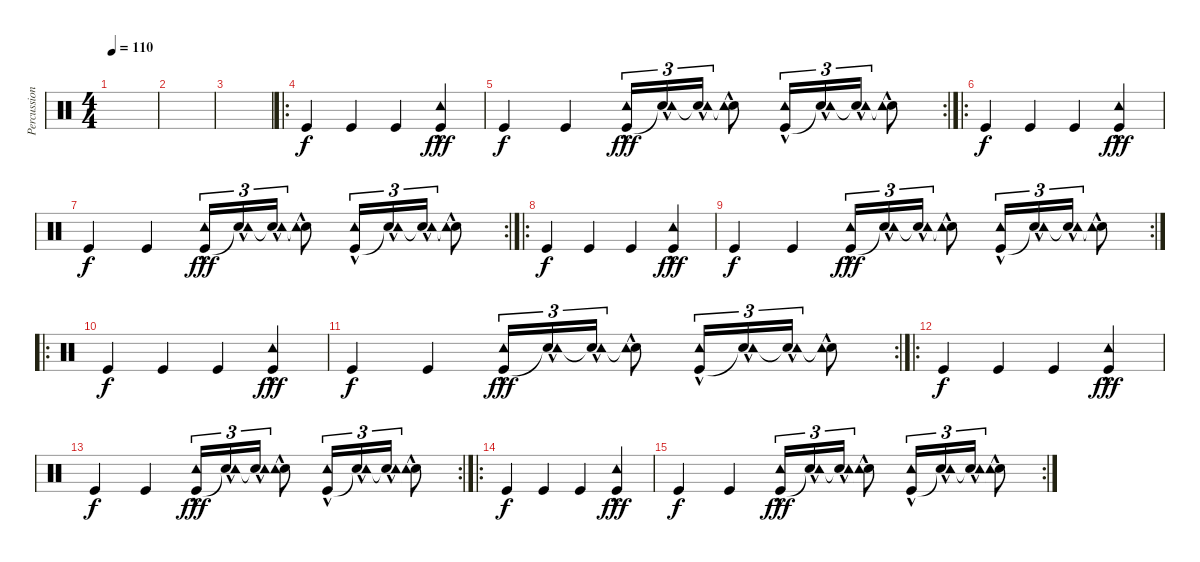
\track ("Percussion" "Percussion") {instrument percussion}
\staff {score}
\articulation defaults
\ts (4 4)
\tempo 110
\clef neutral
\ks c
|
|
|
\ro "Kick (hit)".4 "Kick (hit)".4 "Kick (hit)".4
("Kick (hit)" "Tambourine (hit)"{hac}).4{dy fff} |
\rc 2 "Kick (hit)".4{dy f} "Kick (hit)".4
("Kick (hit)" "Tambourine (hit)"{hac}).16{tu (3 2) dy fff} ("Snare (hit)"{t} "Tambourine (hit)"{hac}).16{tu (3 2)} ("Snare (hit)"{t} "Tambourine (hit)"{hac}).16{tu (3 2)} ("Snare (hit)"{t} "Tambourine (hit)"{hac}).8 ("Kick (hit)" "Tambourine (hit)"{hac}).16{tu (3 2)} ("Snare (hit)"{t} "Tambourine (hit)"{hac}).16{tu (3 2)} ("Snare (hit)"{t} "Tambourine (hit)"{hac}).16{tu (3 2)} ("Snare (hit)"{t} "Tambourine (hit)"{hac}).8 |
\ro "Kick (hit)".4{dy f} "Kick (hit)".4 "Kick (hit)".4
("Kick (hit)" "Tambourine (hit)"{hac}).4{dy fff} |
\rc 2 "Kick (hit)".4{dy f} "Kick (hit)".4
("Kick (hit)" "Tambourine (hit)"{hac}).16{tu (3 2) dy fff} ("Snare (hit)"{t} "Tambourine (hit)"{hac}).16{tu (3 2)} ("Snare (hit)"{t} "Tambourine (hit)"{hac}).16{tu (3 2)} ("Snare (hit)"{t} "Tambourine (hit)"{hac}).8 ("Kick (hit)" "Tambourine (hit)"{hac}).16{tu (3 2)} ("Snare (hit)"{t} "Tambourine (hit)"{hac}).16{tu (3 2)} ("Snare (hit)"{t} "Tambourine (hit)"{hac}).16{tu (3 2)} ("Snare (hit)"{t} "Tambourine (hit)"{hac}).8 |
\ro "Kick (hit)".4{dy f} "Kick (hit)".4 "Kick (hit)".4
("Kick (hit)" "Tambourine (hit)"{hac}).4{dy fff} |
\rc 2 "Kick (hit)".4{dy f} "Kick (hit)".4
("Kick (hit)" "Tambourine (hit)"{hac}).16{tu (3 2) dy fff} ("Snare (hit)"{t} "Tambourine (hit)"{hac}).16{tu (3 2)} ("Snare (hit)"{t} "Tambourine (hit)"{hac}).16{tu (3 2)} ("Snare (hit)"{t} "Tambourine (hit)"{hac}).8 ("Kick (hit)" "Tambourine (hit)"{hac}).16{tu (3 2)} ("Snare (hit)"{t} "Tambourine (hit)"{hac}).16{tu (3 2)} ("Snare (hit)"{t} "Tambourine (hit)"{hac}).16{tu (3 2)} ("Snare (hit)"{t} "Tambourine (hit)"{hac}).8 |
\ro "Kick (hit)".4{dy f} "Kick (hit)".4 "Kick (hit)".4
("Kick (hit)" "Tambourine (hit)"{hac}).4{dy fff} |
\rc 2 "Kick (hit)".4{dy f} "Kick (hit)".4
("Kick (hit)" "Tambourine (hit)"{hac}).16{tu (3 2) dy fff} ("Snare (hit)"{t} "Tambourine (hit)"{hac}).16{tu (3 2)} ("Snare (hit)"{t} "Tambourine (hit)"{hac}).16{tu (3 2)} ("Snare (hit)"{t} "Tambourine (hit)"{hac}).8 ("Kick (hit)" "Tambourine (hit)"{hac}).16{tu (3 2)} ("Snare (hit)"{t} "Tambourine (hit)"{hac}).16{tu (3 2)} ("Snare (hit)"{t} "Tambourine (hit)"{hac}).16{tu (3 2)} ("Snare (hit)"{t} "Tambourine (hit)"{hac}).8 |
\ro "Kick (hit)".4{dy f} "Kick (hit)".4 "Kick (hit)".4
("Kick (hit)" "Tambourine (hit)"{hac}).4{dy fff} |
\rc 2 "Kick (hit)".4{dy f} "Kick (hit)".4
("Kick (hit)" "Tambourine (hit)"{hac}).16{tu (3 2) dy fff} ("Snare (hit)"{t} "Tambourine (hit)"{hac}).16{tu (3 2)} ("Snare (hit)"{t} "Tambourine (hit)"{hac}).16{tu (3 2)} ("Snare (hit)"{t} "Tambourine (hit)"{hac}).8 ("Kick (hit)" "Tambourine (hit)"{hac}).16{tu (3 2)} ("Snare (hit)"{t} "Tambourine (hit)"{hac}).16{tu (3 2)} ("Snare (hit)"{t} "Tambourine (hit)"{hac}).16{tu (3 2)} ("Snare (hit)"{t} "Tambourine (hit)"{hac}).8 |
\ro "Kick (hit)".4{dy f} "Kick (hit)".4 "Kick (hit)".4
("Kick (hit)" "Tambourine (hit)"{hac}).4{dy fff} |
\rc 2 "Kick (hit)".4{dy f} "Kick (hit)".4
("Kick (hit)" "Tambourine (hit)"{hac}).16{tu (3 2) dy fff} ("Snare (hit)"{t} "Tambourine (hit)"{hac}).16{tu (3 2)} ("Snare (hit)"{t} "Tambourine (hit)"{hac}).16{tu (3 2)} ("Snare (hit)"{t} "Tambourine (hit)"{hac}).8 ("Kick (hit)" "Tambourine (hit)"{hac}).16{tu (3 2)} ("Snare (hit)"{t} "Tambourine (hit)"{hac}).16{tu (3 2)} ("Snare (hit)"{t} "Tambourine (hit)"{hac}).16{tu (3 2)} ("Snare (hit)"{t} "Tambourine (hit)"{hac}).8
